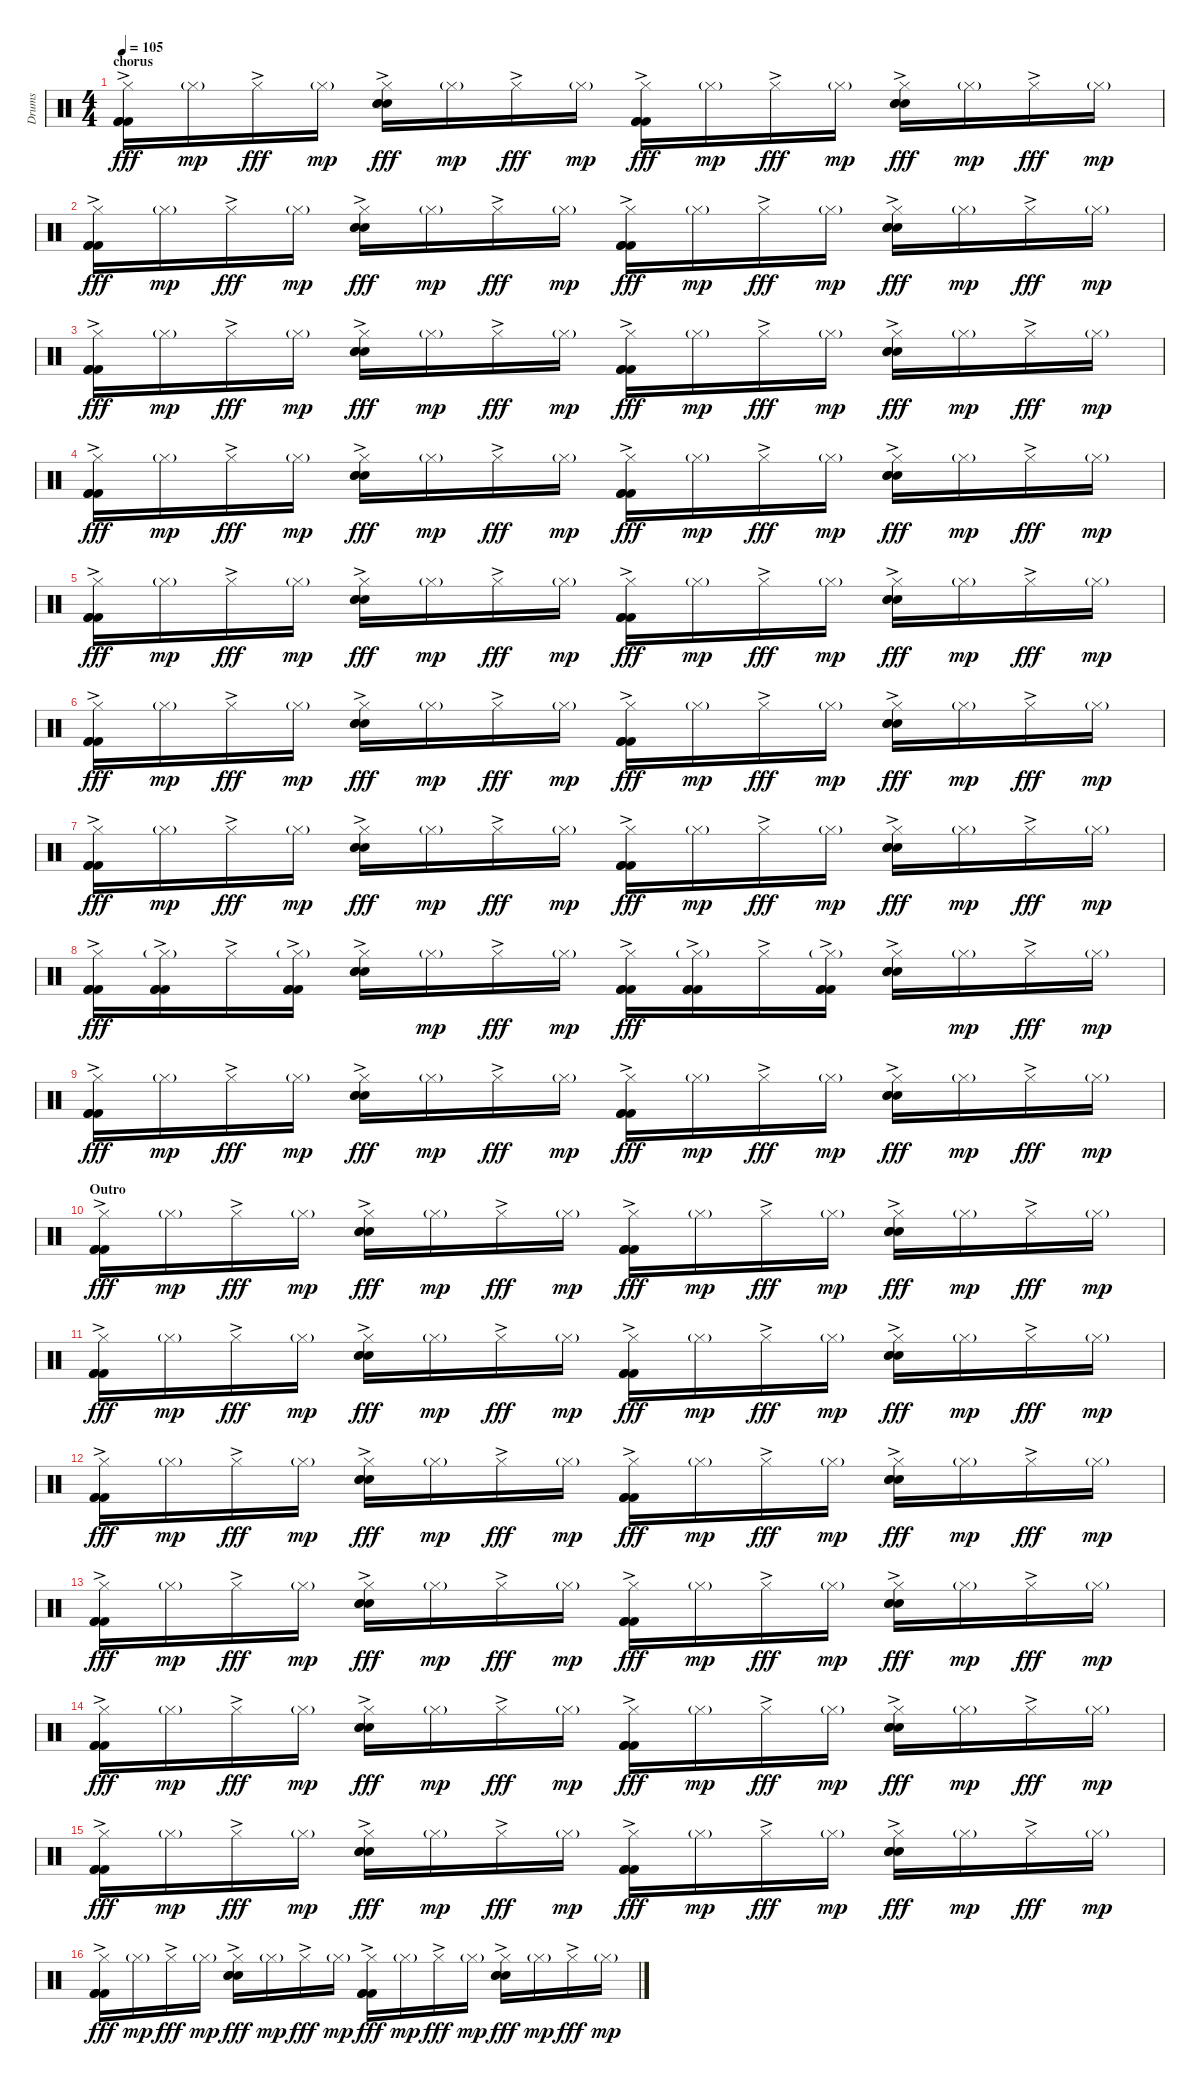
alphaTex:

\track ("Drums" "Drums") {instrument percussion}
\staff {score}
\articulation defaults
\ts (4 4)
\section ("" "chorus")
\tempo 105
\clef neutral
\ks c
("Hi-Hat (closed)"{ac} "Kick (hit) 2"{ac} "Kick (hit) 2"{ac} "Kick (hit) 2"{ac}).16{dy fff} "Hi-Hat (closed)"{g}.16{dy mp} "Hi-Hat (closed)"{ac}.16{dy fff} "Hi-Hat (closed)"{g}.16{dy mp} ("Hi-Hat (closed)"{ac} "Snare (hit) 2"{ac} "Snare (hit) 2"{ac} "Snare (hit) 2"{ac}).16{dy fff} "Hi-Hat (closed)"{g}.16{dy mp} "Hi-Hat (closed)"{ac}.16{dy fff} "Hi-Hat (closed)"{g}.16{dy mp} ("Hi-Hat (closed)"{ac} "Kick (hit) 2"{ac} "Kick (hit) 2"{ac} "Kick (hit) 2"{ac}).16{dy fff} "Hi-Hat (closed)"{g}.16{dy mp} "Hi-Hat (closed)"{ac}.16{dy fff} "Hi-Hat (closed)"{g}.16{dy mp} ("Hi-Hat (closed)"{ac} "Snare (hit) 2"{ac} "Snare (hit) 2"{ac} "Snare (hit) 2"{ac}).16{dy fff} "Hi-Hat (closed)"{g}.16{dy mp} "Hi-Hat (closed)"{ac}.16{dy fff} "Hi-Hat (closed)"{g}.16{dy mp} |
("Hi-Hat (closed)"{ac} "Kick (hit) 2"{ac} "Kick (hit) 2"{ac} "Kick (hit) 2"{ac}).16{dy fff} "Hi-Hat (closed)"{g}.16{dy mp} "Hi-Hat (closed)"{ac}.16{dy fff} "Hi-Hat (closed)"{g}.16{dy mp} ("Hi-Hat (closed)"{ac} "Snare (hit) 2"{ac} "Snare (hit) 2"{ac} "Snare (hit) 2"{ac}).16{dy fff} "Hi-Hat (closed)"{g}.16{dy mp} "Hi-Hat (closed)"{ac}.16{dy fff} "Hi-Hat (closed)"{g}.16{dy mp} ("Hi-Hat (closed)"{ac} "Kick (hit) 2"{ac} "Kick (hit) 2"{ac} "Kick (hit) 2"{ac}).16{dy fff} "Hi-Hat (closed)"{g}.16{dy mp} "Hi-Hat (closed)"{ac}.16{dy fff} "Hi-Hat (closed)"{g}.16{dy mp} ("Hi-Hat (closed)"{ac} "Snare (hit) 2"{ac} "Snare (hit) 2"{ac} "Snare (hit) 2"{ac}).16{dy fff} "Hi-Hat (closed)"{g}.16{dy mp} "Hi-Hat (closed)"{ac}.16{dy fff} "Hi-Hat (closed)"{g}.16{dy mp} |
("Hi-Hat (closed)"{ac} "Kick (hit) 2"{ac} "Kick (hit) 2"{ac} "Kick (hit) 2"{ac}).16{dy fff} "Hi-Hat (closed)"{g}.16{dy mp} "Hi-Hat (closed)"{ac}.16{dy fff} "Hi-Hat (closed)"{g}.16{dy mp} ("Hi-Hat (closed)"{ac} "Snare (hit) 2"{ac} "Snare (hit) 2"{ac} "Snare (hit) 2"{ac}).16{dy fff} "Hi-Hat (closed)"{g}.16{dy mp} "Hi-Hat (closed)"{ac}.16{dy fff} "Hi-Hat (closed)"{g}.16{dy mp} ("Hi-Hat (closed)"{ac} "Kick (hit) 2"{ac} "Kick (hit) 2"{ac} "Kick (hit) 2"{ac}).16{dy fff} "Hi-Hat (closed)"{g}.16{dy mp} "Hi-Hat (closed)"{ac}.16{dy fff} "Hi-Hat (closed)"{g}.16{dy mp} ("Hi-Hat (closed)"{ac} "Snare (hit) 2"{ac} "Snare (hit) 2"{ac} "Snare (hit) 2"{ac}).16{dy fff} "Hi-Hat (closed)"{g}.16{dy mp} "Hi-Hat (closed)"{ac}.16{dy fff} "Hi-Hat (closed)"{g}.16{dy mp} |
("Hi-Hat (closed)"{ac} "Kick (hit) 2"{ac} "Kick (hit) 2"{ac} "Kick (hit) 2"{ac}).16{dy fff} "Hi-Hat (closed)"{g}.16{dy mp} "Hi-Hat (closed)"{ac}.16{dy fff} "Hi-Hat (closed)"{g}.16{dy mp} ("Hi-Hat (closed)"{ac} "Snare (hit) 2"{ac} "Snare (hit) 2"{ac} "Snare (hit) 2"{ac}).16{dy fff} "Hi-Hat (closed)"{g}.16{dy mp} "Hi-Hat (closed)"{ac}.16{dy fff} "Hi-Hat (closed)"{g}.16{dy mp} ("Hi-Hat (closed)"{ac} "Kick (hit) 2"{ac} "Kick (hit) 2"{ac} "Kick (hit) 2"{ac}).16{dy fff} "Hi-Hat (closed)"{g}.16{dy mp} "Hi-Hat (closed)"{ac}.16{dy fff} "Hi-Hat (closed)"{g}.16{dy mp} ("Hi-Hat (closed)"{ac} "Snare (hit) 2"{ac} "Snare (hit) 2"{ac} "Snare (hit) 2"{ac}).16{dy fff} "Hi-Hat (closed)"{g}.16{dy mp} "Hi-Hat (closed)"{ac}.16{dy fff} "Hi-Hat (closed)"{g}.16{dy mp} |
("Hi-Hat (closed)"{ac} "Kick (hit) 2"{ac} "Kick (hit) 2"{ac} "Kick (hit) 2"{ac}).16{dy fff} "Hi-Hat (closed)"{g}.16{dy mp} "Hi-Hat (closed)"{ac}.16{dy fff} "Hi-Hat (closed)"{g}.16{dy mp} ("Hi-Hat (closed)"{ac} "Snare (hit) 2"{ac} "Snare (hit) 2"{ac} "Snare (hit) 2"{ac}).16{dy fff} "Hi-Hat (closed)"{g}.16{dy mp} "Hi-Hat (closed)"{ac}.16{dy fff} "Hi-Hat (closed)"{g}.16{dy mp} ("Hi-Hat (closed)"{ac} "Kick (hit) 2"{ac} "Kick (hit) 2"{ac} "Kick (hit) 2"{ac}).16{dy fff} "Hi-Hat (closed)"{g}.16{dy mp} "Hi-Hat (closed)"{ac}.16{dy fff} "Hi-Hat (closed)"{g}.16{dy mp} ("Hi-Hat (closed)"{ac} "Snare (hit) 2"{ac} "Snare (hit) 2"{ac} "Snare (hit) 2"{ac}).16{dy fff} "Hi-Hat (closed)"{g}.16{dy mp} "Hi-Hat (closed)"{ac}.16{dy fff} "Hi-Hat (closed)"{g}.16{dy mp} |
("Hi-Hat (closed)"{ac} "Kick (hit) 2"{ac} "Kick (hit) 2"{ac} "Kick (hit) 2"{ac}).16{dy fff} "Hi-Hat (closed)"{g}.16{dy mp} "Hi-Hat (closed)"{ac}.16{dy fff} "Hi-Hat (closed)"{g}.16{dy mp} ("Hi-Hat (closed)"{ac} "Snare (hit) 2"{ac} "Snare (hit) 2"{ac} "Snare (hit) 2"{ac}).16{dy fff} "Hi-Hat (closed)"{g}.16{dy mp} "Hi-Hat (closed)"{ac}.16{dy fff} "Hi-Hat (closed)"{g}.16{dy mp} ("Hi-Hat (closed)"{ac} "Kick (hit) 2"{ac} "Kick (hit) 2"{ac} "Kick (hit) 2"{ac}).16{dy fff} "Hi-Hat (closed)"{g}.16{dy mp} "Hi-Hat (closed)"{ac}.16{dy fff} "Hi-Hat (closed)"{g}.16{dy mp} ("Hi-Hat (closed)"{ac} "Snare (hit) 2"{ac} "Snare (hit) 2"{ac} "Snare (hit) 2"{ac}).16{dy fff} "Hi-Hat (closed)"{g}.16{dy mp} "Hi-Hat (closed)"{ac}.16{dy fff} "Hi-Hat (closed)"{g}.16{dy mp} |
("Hi-Hat (closed)"{ac} "Kick (hit) 2"{ac} "Kick (hit) 2"{ac} "Kick (hit) 2"{ac}).16{dy fff} "Hi-Hat (closed)"{g}.16{dy mp} "Hi-Hat (closed)"{ac}.16{dy fff} "Hi-Hat (closed)"{g}.16{dy mp} ("Hi-Hat (closed)"{ac} "Snare (hit) 2"{ac} "Snare (hit) 2"{ac} "Snare (hit) 2"{ac}).16{dy fff} "Hi-Hat (closed)"{g}.16{dy mp} "Hi-Hat (closed)"{ac}.16{dy fff} "Hi-Hat (closed)"{g}.16{dy mp} ("Hi-Hat (closed)"{ac} "Kick (hit) 2"{ac} "Kick (hit) 2"{ac} "Kick (hit) 2"{ac}).16{dy fff} "Hi-Hat (closed)"{g}.16{dy mp} "Hi-Hat (closed)"{ac}.16{dy fff} "Hi-Hat (closed)"{g}.16{dy mp} ("Hi-Hat (closed)"{ac} "Snare (hit) 2"{ac} "Snare (hit) 2"{ac} "Snare (hit) 2"{ac}).16{dy fff} "Hi-Hat (closed)"{g}.16{dy mp} "Hi-Hat (closed)"{ac}.16{dy fff} "Hi-Hat (closed)"{g}.16{dy mp} |
("Hi-Hat (closed)"{ac} "Kick (hit) 2"{ac} "Kick (hit) 2"{ac} "Kick (hit) 2"{ac}).16{dy fff} ("Hi-Hat (closed)"{g} "Kick (hit) 2"{ac} "Kick (hit) 2"{ac} "Kick (hit) 2"{ac}).16 "Hi-Hat (closed)"{ac}.16 ("Hi-Hat (closed)"{g} "Kick (hit) 2"{ac} "Kick (hit) 2"{ac} "Kick (hit) 2"{ac}).16 ("Hi-Hat (closed)"{ac} "Snare (hit) 2"{ac} "Snare (hit) 2"{ac} "Snare (hit) 2"{ac}).16 "Hi-Hat (closed)"{g}.16{dy mp} "Hi-Hat (closed)"{ac}.16{dy fff} "Hi-Hat (closed)"{g}.16{dy mp} ("Hi-Hat (closed)"{ac} "Kick (hit) 2"{ac} "Kick (hit) 2"{ac} "Kick (hit) 2"{ac}).16{dy fff} ("Hi-Hat (closed)"{g} "Kick (hit) 2"{ac} "Kick (hit) 2"{ac} "Kick (hit) 2"{ac}).16 "Hi-Hat (closed)"{ac}.16 ("Hi-Hat (closed)"{g} "Kick (hit) 2"{ac} "Kick (hit) 2"{ac} "Kick (hit) 2"{ac}).16 ("Hi-Hat (closed)"{ac} "Snare (hit) 2"{ac} "Snare (hit) 2"{ac} "Snare (hit) 2"{ac}).16 "Hi-Hat (closed)"{g}.16{dy mp} "Hi-Hat (closed)"{ac}.16{dy fff} "Hi-Hat (closed)"{g}.16{dy mp} |
("Hi-Hat (closed)"{ac} "Kick (hit) 2"{ac} "Kick (hit) 2"{ac} "Kick (hit) 2"{ac}).16{dy fff} "Hi-Hat (closed)"{g}.16{dy mp} "Hi-Hat (closed)"{ac}.16{dy fff} "Hi-Hat (closed)"{g}.16{dy mp} ("Hi-Hat (closed)"{ac} "Snare (hit) 2"{ac} "Snare (hit) 2"{ac} "Snare (hit) 2"{ac}).16{dy fff} "Hi-Hat (closed)"{g}.16{dy mp} "Hi-Hat (closed)"{ac}.16{dy fff} "Hi-Hat (closed)"{g}.16{dy mp} ("Hi-Hat (closed)"{ac} "Kick (hit) 2"{ac} "Kick (hit) 2"{ac} "Kick (hit) 2"{ac}).16{dy fff} "Hi-Hat (closed)"{g}.16{dy mp} "Hi-Hat (closed)"{ac}.16{dy fff} "Hi-Hat (closed)"{g}.16{dy mp} ("Hi-Hat (closed)"{ac} "Snare (hit) 2"{ac} "Snare (hit) 2"{ac} "Snare (hit) 2"{ac}).16{dy fff} "Hi-Hat (closed)"{g}.16{dy mp} "Hi-Hat (closed)"{ac}.16{dy fff} "Hi-Hat (closed)"{g}.16{dy mp} |
\section ("" "Outro")
("Hi-Hat (closed)"{ac} "Kick (hit) 2"{ac} "Kick (hit) 2"{ac} "Kick (hit) 2"{ac}).16{dy fff} "Hi-Hat (closed)"{g}.16{dy mp} "Hi-Hat (closed)"{ac}.16{dy fff} "Hi-Hat (closed)"{g}.16{dy mp} ("Hi-Hat (closed)"{ac} "Snare (hit) 2"{ac} "Snare (hit) 2"{ac} "Snare (hit) 2"{ac}).16{dy fff} "Hi-Hat (closed)"{g}.16{dy mp} "Hi-Hat (closed)"{ac}.16{dy fff} "Hi-Hat (closed)"{g}.16{dy mp} ("Hi-Hat (closed)"{ac} "Kick (hit) 2"{ac} "Kick (hit) 2"{ac} "Kick (hit) 2"{ac}).16{dy fff} "Hi-Hat (closed)"{g}.16{dy mp} "Hi-Hat (closed)"{ac}.16{dy fff} "Hi-Hat (closed)"{g}.16{dy mp} ("Hi-Hat (closed)"{ac} "Snare (hit) 2"{ac} "Snare (hit) 2"{ac} "Snare (hit) 2"{ac}).16{dy fff} "Hi-Hat (closed)"{g}.16{dy mp} "Hi-Hat (closed)"{ac}.16{dy fff} "Hi-Hat (closed)"{g}.16{dy mp} |
("Hi-Hat (closed)"{ac} "Kick (hit) 2"{ac} "Kick (hit) 2"{ac} "Kick (hit) 2"{ac}).16{dy fff} "Hi-Hat (closed)"{g}.16{dy mp} "Hi-Hat (closed)"{ac}.16{dy fff} "Hi-Hat (closed)"{g}.16{dy mp} ("Hi-Hat (closed)"{ac} "Snare (hit) 2"{ac} "Snare (hit) 2"{ac} "Snare (hit) 2"{ac}).16{dy fff} "Hi-Hat (closed)"{g}.16{dy mp} "Hi-Hat (closed)"{ac}.16{dy fff} "Hi-Hat (closed)"{g}.16{dy mp} ("Hi-Hat (closed)"{ac} "Kick (hit) 2"{ac} "Kick (hit) 2"{ac} "Kick (hit) 2"{ac}).16{dy fff} "Hi-Hat (closed)"{g}.16{dy mp} "Hi-Hat (closed)"{ac}.16{dy fff} "Hi-Hat (closed)"{g}.16{dy mp} ("Hi-Hat (closed)"{ac} "Snare (hit) 2"{ac} "Snare (hit) 2"{ac} "Snare (hit) 2"{ac}).16{dy fff} "Hi-Hat (closed)"{g}.16{dy mp} "Hi-Hat (closed)"{ac}.16{dy fff} "Hi-Hat (closed)"{g}.16{dy mp} |
("Hi-Hat (closed)"{ac} "Kick (hit) 2"{ac} "Kick (hit) 2"{ac} "Kick (hit) 2"{ac}).16{dy fff} "Hi-Hat (closed)"{g}.16{dy mp} "Hi-Hat (closed)"{ac}.16{dy fff} "Hi-Hat (closed)"{g}.16{dy mp} ("Hi-Hat (closed)"{ac} "Snare (hit) 2"{ac} "Snare (hit) 2"{ac} "Snare (hit) 2"{ac}).16{dy fff} "Hi-Hat (closed)"{g}.16{dy mp} "Hi-Hat (closed)"{ac}.16{dy fff} "Hi-Hat (closed)"{g}.16{dy mp} ("Hi-Hat (closed)"{ac} "Kick (hit) 2"{ac} "Kick (hit) 2"{ac} "Kick (hit) 2"{ac}).16{dy fff} "Hi-Hat (closed)"{g}.16{dy mp} "Hi-Hat (closed)"{ac}.16{dy fff} "Hi-Hat (closed)"{g}.16{dy mp} ("Hi-Hat (closed)"{ac} "Snare (hit) 2"{ac} "Snare (hit) 2"{ac} "Snare (hit) 2"{ac}).16{dy fff} "Hi-Hat (closed)"{g}.16{dy mp} "Hi-Hat (closed)"{ac}.16{dy fff} "Hi-Hat (closed)"{g}.16{dy mp} |
("Hi-Hat (closed)"{ac} "Kick (hit) 2"{ac} "Kick (hit) 2"{ac} "Kick (hit) 2"{ac}).16{dy fff} "Hi-Hat (closed)"{g}.16{dy mp} "Hi-Hat (closed)"{ac}.16{dy fff} "Hi-Hat (closed)"{g}.16{dy mp} ("Hi-Hat (closed)"{ac} "Snare (hit) 2"{ac} "Snare (hit) 2"{ac} "Snare (hit) 2"{ac}).16{dy fff} "Hi-Hat (closed)"{g}.16{dy mp} "Hi-Hat (closed)"{ac}.16{dy fff} "Hi-Hat (closed)"{g}.16{dy mp} ("Hi-Hat (closed)"{ac} "Kick (hit) 2"{ac} "Kick (hit) 2"{ac} "Kick (hit) 2"{ac}).16{dy fff} "Hi-Hat (closed)"{g}.16{dy mp} "Hi-Hat (closed)"{ac}.16{dy fff} "Hi-Hat (closed)"{g}.16{dy mp} ("Hi-Hat (closed)"{ac} "Snare (hit) 2"{ac} "Snare (hit) 2"{ac} "Snare (hit) 2"{ac}).16{dy fff} "Hi-Hat (closed)"{g}.16{dy mp} "Hi-Hat (closed)"{ac}.16{dy fff} "Hi-Hat (closed)"{g}.16{dy mp} |
("Hi-Hat (closed)"{ac} "Kick (hit) 2"{ac} "Kick (hit) 2"{ac} "Kick (hit) 2"{ac}).16{dy fff} "Hi-Hat (closed)"{g}.16{dy mp} "Hi-Hat (closed)"{ac}.16{dy fff} "Hi-Hat (closed)"{g}.16{dy mp} ("Hi-Hat (closed)"{ac} "Snare (hit) 2"{ac} "Snare (hit) 2"{ac} "Snare (hit) 2"{ac}).16{dy fff} "Hi-Hat (closed)"{g}.16{dy mp} "Hi-Hat (closed)"{ac}.16{dy fff} "Hi-Hat (closed)"{g}.16{dy mp} ("Hi-Hat (closed)"{ac} "Kick (hit) 2"{ac} "Kick (hit) 2"{ac} "Kick (hit) 2"{ac}).16{dy fff} "Hi-Hat (closed)"{g}.16{dy mp} "Hi-Hat (closed)"{ac}.16{dy fff} "Hi-Hat (closed)"{g}.16{dy mp} ("Hi-Hat (closed)"{ac} "Snare (hit) 2"{ac} "Snare (hit) 2"{ac} "Snare (hit) 2"{ac}).16{dy fff} "Hi-Hat (closed)"{g}.16{dy mp} "Hi-Hat (closed)"{ac}.16{dy fff} "Hi-Hat (closed)"{g}.16{dy mp} |
("Hi-Hat (closed)"{ac} "Kick (hit) 2"{ac} "Kick (hit) 2"{ac} "Kick (hit) 2"{ac}).16{dy fff} "Hi-Hat (closed)"{g}.16{dy mp} "Hi-Hat (closed)"{ac}.16{dy fff} "Hi-Hat (closed)"{g}.16{dy mp} ("Hi-Hat (closed)"{ac} "Snare (hit) 2"{ac} "Snare (hit) 2"{ac} "Snare (hit) 2"{ac}).16{dy fff} "Hi-Hat (closed)"{g}.16{dy mp} "Hi-Hat (closed)"{ac}.16{dy fff} "Hi-Hat (closed)"{g}.16{dy mp} ("Hi-Hat (closed)"{ac} "Kick (hit) 2"{ac} "Kick (hit) 2"{ac} "Kick (hit) 2"{ac}).16{dy fff} "Hi-Hat (closed)"{g}.16{dy mp} "Hi-Hat (closed)"{ac}.16{dy fff} "Hi-Hat (closed)"{g}.16{dy mp} ("Hi-Hat (closed)"{ac} "Snare (hit) 2"{ac} "Snare (hit) 2"{ac} "Snare (hit) 2"{ac}).16{dy fff} "Hi-Hat (closed)"{g}.16{dy mp} "Hi-Hat (closed)"{ac}.16{dy fff} "Hi-Hat (closed)"{g}.16{dy mp} |
("Hi-Hat (closed)"{ac} "Kick (hit) 2"{ac} "Kick (hit) 2"{ac} "Kick (hit) 2"{ac}).16{dy fff} "Hi-Hat (closed)"{g}.16{dy mp} "Hi-Hat (closed)"{ac}.16{dy fff} "Hi-Hat (closed)"{g}.16{dy mp} ("Hi-Hat (closed)"{ac} "Snare (hit) 2"{ac} "Snare (hit) 2"{ac} "Snare (hit) 2"{ac}).16{dy fff} "Hi-Hat (closed)"{g}.16{dy mp} "Hi-Hat (closed)"{ac}.16{dy fff} "Hi-Hat (closed)"{g}.16{dy mp} ("Hi-Hat (closed)"{ac} "Kick (hit) 2"{ac} "Kick (hit) 2"{ac} "Kick (hit) 2"{ac}).16{dy fff} "Hi-Hat (closed)"{g}.16{dy mp} "Hi-Hat (closed)"{ac}.16{dy fff} "Hi-Hat (closed)"{g}.16{dy mp} ("Hi-Hat (closed)"{ac} "Snare (hit) 2"{ac} "Snare (hit) 2"{ac} "Snare (hit) 2"{ac}).16{dy fff} "Hi-Hat (closed)"{g}.16{dy mp} "Hi-Hat (closed)"{ac}.16{dy fff} "Hi-Hat (closed)"{g}.16{dy mp}
